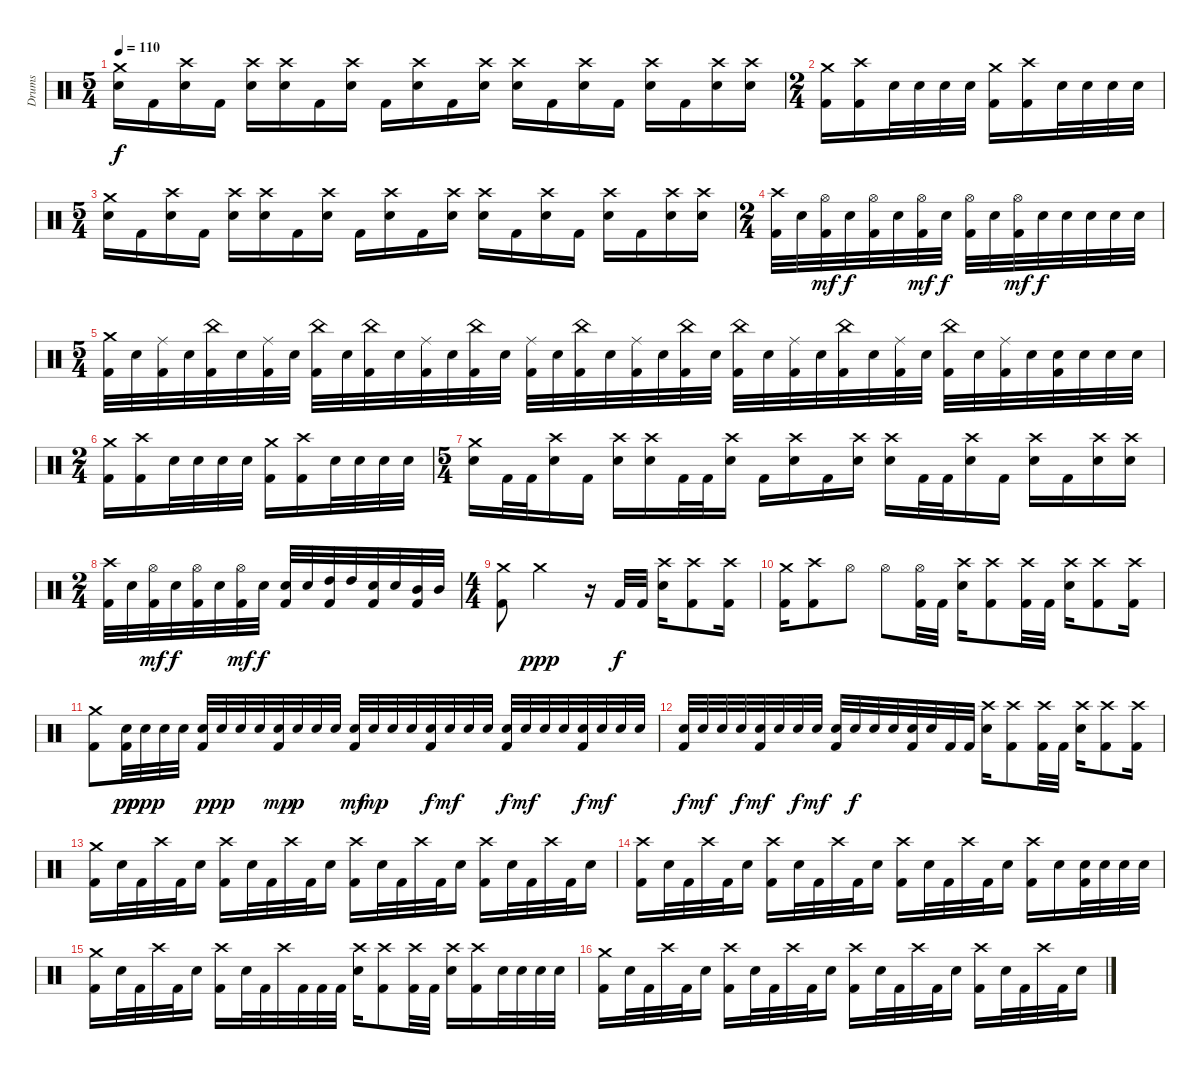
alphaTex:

\track ("Drums" "Drums") {instrument percussion}
\staff {score}
\articulation defaults
\ts (5 4)
\tempo 110
\clef neutral
\ks c
("Crash medium (hit)" "Electric Snare (hit)").16{dy f} "Kick (hit) 2".16 ("Crash high (hit)" "Electric Snare (hit)").16 "Kick (hit) 2".16 ("Crash high (hit)" "Electric Snare (hit)").16 ("Crash high (hit)" "Electric Snare (hit)").16 "Kick (hit) 2".16 ("Crash high (hit)" "Electric Snare (hit)").16 "Kick (hit) 2".16 ("Crash high (hit)" "Electric Snare (hit)").16 "Kick (hit) 2".16 ("Crash high (hit)" "Electric Snare (hit)").16 ("Crash high (hit)" "Electric Snare (hit)").16 "Kick (hit) 2".16 ("Crash high (hit)" "Electric Snare (hit)").16 "Kick (hit) 2".16 ("Crash high (hit)" "Electric Snare (hit)").16 "Kick (hit) 2".16 ("Crash high (hit)" "Electric Snare (hit)").16 ("Crash high (hit)" "Electric Snare (hit)").16 |
\ts (2 4)
("Crash medium (hit)" "Kick (hit) 2").16 ("Crash high (hit)" "Kick (hit) 2").16 "Electric Snare (hit)".32 "Electric Snare (hit)".32 "Electric Snare (hit)".32 "Electric Snare (hit)".32 ("Crash medium (hit)" "Kick (hit) 2").16 ("Crash high (hit)" "Kick (hit) 2").16 "Electric Snare (hit)".32 "Electric Snare (hit)".32 "Electric Snare (hit)".32 "Electric Snare (hit)".32 |
\ts (5 4)
("Crash medium (hit)" "Electric Snare (hit)").16 "Kick (hit) 2".16 ("Crash high (hit)" "Electric Snare (hit)").16 "Kick (hit) 2".16 ("Crash high (hit)" "Electric Snare (hit)").16 ("Crash high (hit)" "Electric Snare (hit)").16 "Kick (hit) 2".16 ("Crash high (hit)" "Electric Snare (hit)").16 "Kick (hit) 2".16 ("Crash high (hit)" "Electric Snare (hit)").16 "Kick (hit) 2".16 ("Crash high (hit)" "Electric Snare (hit)").16 ("Crash high (hit)" "Electric Snare (hit)").16 "Kick (hit) 2".16 ("Crash high (hit)" "Electric Snare (hit)").16 "Kick (hit) 2".16 ("Crash high (hit)" "Electric Snare (hit)").16 "Kick (hit) 2".16 ("Crash high (hit)" "Electric Snare (hit)").16 ("Crash high (hit)" "Electric Snare (hit)").16 |
\ts (2 4)
("Crash high (hit)" "Kick (hit) 2").32 "Electric Snare (hit)".32 ("Hi-Hat (open)" "Kick (hit) 2").32{dy mf} "Electric Snare (hit)".32{dy f} ("Hi-Hat (open)" "Kick (hit) 2").32 "Electric Snare (hit)".32 ("Hi-Hat (open)" "Kick (hit) 2").32{dy mf} "Electric Snare (hit)".32{dy f} ("Hi-Hat (open)" "Kick (hit) 2").32 "Electric Snare (hit)".32 ("Hi-Hat (open)" "Kick (hit) 2").32{dy mf} "Electric Snare (hit)".32{dy f} "Electric Snare (hit)".32 "Electric Snare (hit)".32 "Electric Snare (hit)".32 "Electric Snare (hit)".32 |
\ts (5 4)
("Crash medium (hit)" "Kick (hit) 2").32 "Electric Snare (hit)".32 ("Ride (middle)" "Kick (hit) 2").32 "Electric Snare (hit)".32 ("China (hit)" "Kick (hit) 2").32 "Electric Snare (hit)".32 ("Ride (middle)" "Kick (hit) 2").32 "Electric Snare (hit)".32 ("China (hit)" "Kick (hit) 2").32 "Electric Snare (hit)".32 ("China (hit)" "Kick (hit) 2").32 "Electric Snare (hit)".32 ("Ride (middle)" "Kick (hit) 2").32 "Electric Snare (hit)".32 ("China (hit)" "Kick (hit) 2").32 "Electric Snare (hit)".32 ("Ride (middle)" "Kick (hit) 2").32 "Electric Snare (hit)".32 ("China (hit)" "Kick (hit) 2").32 "Electric Snare (hit)".32 ("Ride (middle)" "Kick (hit) 2").32 "Electric Snare (hit)".32 ("China (hit)" "Kick (hit) 2").32 "Electric Snare (hit)".32 ("China (hit)" "Kick (hit) 2").32 "Electric Snare (hit)".32 ("Ride (middle)" "Kick (hit) 2").32 "Electric Snare (hit)".32 ("China (hit)" "Kick (hit) 2").32 "Electric Snare (hit)".32 ("Ride (middle)" "Kick (hit) 2").32 "Electric Snare (hit)".32 ("China (hit)" "Kick (hit) 2").32 "Electric Snare (hit)".32 ("Ride (middle)" "Kick (hit) 2").32 "Electric Snare (hit)".32 ("Electric Snare (hit)" "Kick (hit) 2").32 "Electric Snare (hit)".32 "Electric Snare (hit)".32 "Electric Snare (hit)".32 |
\ts (2 4)
("Crash medium (hit)" "Kick (hit) 2").16 ("Crash high (hit)" "Kick (hit) 2").16 "Electric Snare (hit)".32 "Electric Snare (hit)".32 "Electric Snare (hit)".32 "Electric Snare (hit)".32 ("Crash medium (hit)" "Kick (hit) 2").16 ("Crash high (hit)" "Kick (hit) 2").16 "Electric Snare (hit)".32 "Electric Snare (hit)".32 "Electric Snare (hit)".32 "Electric Snare (hit)".32 |
\ts (5 4)
("Crash medium (hit)" "Electric Snare (hit)").16 "Kick (hit) 2".32 "Kick (hit) 2".32 ("Crash high (hit)" "Electric Snare (hit)").16 "Kick (hit) 2".16 ("Crash high (hit)" "Electric Snare (hit)").16 ("Crash high (hit)" "Electric Snare (hit)").16 "Kick (hit) 2".32 "Kick (hit) 2".32 ("Crash high (hit)" "Electric Snare (hit)").16 "Kick (hit) 2".16 ("Crash high (hit)" "Electric Snare (hit)").16 "Kick (hit) 2".16 ("Crash high (hit)" "Electric Snare (hit)").16 ("Crash high (hit)" "Electric Snare (hit)").16 "Kick (hit) 2".32 "Kick (hit) 2".32 ("Crash high (hit)" "Electric Snare (hit)").16 "Kick (hit) 2".16 ("Crash high (hit)" "Electric Snare (hit)").16 "Kick (hit) 2".16 ("Crash high (hit)" "Electric Snare (hit)").16 ("Crash high (hit)" "Electric Snare (hit)").16 |
\ts (2 4)
("Crash high (hit)" "Kick (hit) 2").32 "Electric Snare (hit)".32 ("Hi-Hat (open)" "Kick (hit) 2").32{dy mf} "Electric Snare (hit)".32{dy f} ("Hi-Hat (open)" "Kick (hit) 2").32 "Electric Snare (hit)".32 ("Hi-Hat (open)" "Kick (hit) 2").32{dy mf} "Electric Snare (hit)".32{dy f} ("Electric Snare (hit)" "Kick (hit) 2").32 "Electric Snare (hit)".32 ("High Tom (hit)" "Kick (hit) 2").32 "High Tom (hit)".32 ("Electric Snare (hit)" "Kick (hit) 2").32 "Electric Snare (hit)".32 ("Mid Tom (hit)" "Kick (hit) 2").32 "Mid Tom (hit)".32 |
\ts (4 4)
("Crash medium (hit)" "Kick (hit) 2").8 "Crash medium (hit)".2{dy ppp} r.16 "Kick (hit) 2".32{dy f} "Kick (hit) 2".32 ("Crash high (hit)" "Electric Snare (hit)").16 ("Crash high (hit)" "Kick (hit) 2").8 ("Crash high (hit)" "Kick (hit) 2").16 |
("Crash medium (hit)" "Kick (hit) 2").16 ("Crash high (hit)" "Kick (hit) 2").8 "Hi-Hat (open)".8 "Hi-Hat (open)".8 ("Hi-Hat (open)" "Kick (hit) 2").32 "Kick (hit) 2".32 ("Crash high (hit)" "Electric Snare (hit)").16 ("Crash high (hit)" "Kick (hit) 2").8 ("Crash high (hit)" "Kick (hit) 2").32 "Kick (hit) 2".32 ("Crash high (hit)" "Electric Snare (hit)").16 ("Crash high (hit)" "Kick (hit) 2").8 ("Crash high (hit)" "Kick (hit) 2").16 |
("Crash medium (hit)" "Kick (hit) 2").8 ("Electric Snare (hit)" "Kick (hit) 2").32{dy pp} "Electric Snare (hit)".32{dy ppp} "Electric Snare (hit)".32 "Electric Snare (hit)".32 ("Electric Snare (hit)" "Kick (hit) 2").32{dy p} "Electric Snare (hit)".32{dy pp} "Electric Snare (hit)".32 "Electric Snare (hit)".32 ("Electric Snare (hit)" "Kick (hit) 2").32{dy mp} "Electric Snare (hit)".32{dy p} "Electric Snare (hit)".32 "Electric Snare (hit)".32 ("Electric Snare (hit)" "Kick (hit) 2").32{dy mf} "Electric Snare (hit)".32{dy mp} "Electric Snare (hit)".32 "Electric Snare (hit)".32 ("Electric Snare (hit)" "Kick (hit) 2").32{dy f} "Electric Snare (hit)".32{dy mf} "Electric Snare (hit)".32 "Electric Snare (hit)".32 ("Electric Snare (hit)" "Kick (hit) 2").32{dy f} "Electric Snare (hit)".32{dy mf} "Electric Snare (hit)".32 "Electric Snare (hit)".32 ("Electric Snare (hit)" "Kick (hit) 2").32{dy f} "Electric Snare (hit)".32{dy mf} "Electric Snare (hit)".32 "Electric Snare (hit)".32 |
("Electric Snare (hit)" "Kick (hit) 2").32{dy f} "Electric Snare (hit)".32{dy mf} "Electric Snare (hit)".32 "Electric Snare (hit)".32{dy f} ("Electric Snare (hit)" "Kick (hit) 2").32{dy mf} "Electric Snare (hit)".32 "Electric Snare (hit)".32{dy f} "Electric Snare (hit)".32{dy mf} ("Electric Snare (hit)" "Kick (hit) 2").32 "Electric Snare (hit)".32{dy f} "Electric Snare (hit)".32 "Electric Snare (hit)".32 ("Electric Snare (hit)" "Kick (hit) 2").32 "Electric Snare (hit)".32 "Kick (hit) 2".32 "Kick (hit) 2".32 ("Crash high (hit)" "Electric Snare (hit)").16 ("Crash high (hit)" "Kick (hit) 2").8 ("Crash high (hit)" "Kick (hit) 2").32 "Kick (hit) 2".32 ("Crash high (hit)" "Electric Snare (hit)").16 ("Crash high (hit)" "Kick (hit) 2").8 ("Crash high (hit)" "Kick (hit) 2").16 |
("Crash medium (hit)" "Kick (hit) 2").16 "Electric Snare (hit)".32 "Kick (hit) 2".32 "Crash high (hit)".32 "Kick (hit) 2".32 "Electric Snare (hit)".16 ("Crash high (hit)" "Kick (hit) 2").16 "Electric Snare (hit)".32 "Kick (hit) 2".32 "Crash high (hit)".32 "Kick (hit) 2".32 "Electric Snare (hit)".16 ("Crash high (hit)" "Kick (hit) 2").16 "Electric Snare (hit)".32 "Kick (hit) 2".32 "Crash high (hit)".32 "Kick (hit) 2".32 "Electric Snare (hit)".16 ("Crash high (hit)" "Kick (hit) 2").16 "Electric Snare (hit)".32 "Kick (hit) 2".32 "Crash high (hit)".32 "Kick (hit) 2".32 "Electric Snare (hit)".16 |
("Crash high (hit)" "Kick (hit) 2").16 "Electric Snare (hit)".32 "Kick (hit) 2".32 "Crash high (hit)".32 "Kick (hit) 2".32 "Electric Snare (hit)".16 ("Crash high (hit)" "Kick (hit) 2").16 "Electric Snare (hit)".32 "Kick (hit) 2".32 "Crash high (hit)".32 "Kick (hit) 2".32 "Electric Snare (hit)".16 ("Crash high (hit)" "Kick (hit) 2").16 "Electric Snare (hit)".32 "Kick (hit) 2".32 "Crash high (hit)".32 "Kick (hit) 2".32 "Electric Snare (hit)".16 ("Crash high (hit)" "Kick (hit) 2").16 "Electric Snare (hit)".16 ("Electric Snare (hit)" "Kick (hit) 2").32 "Electric Snare (hit)".32 "Electric Snare (hit)".32 "Electric Snare (hit)".32 |
("Crash medium (hit)" "Kick (hit) 2").16 "Electric Snare (hit)".32 "Kick (hit) 2".32 "Crash high (hit)".32 "Kick (hit) 2".32 "Electric Snare (hit)".16 ("Crash high (hit)" "Kick (hit) 2").16 "Electric Snare (hit)".32 "Kick (hit) 2".32 "Crash high (hit)".32 "Kick (hit) 2".32 "Kick (hit) 2".32 "Kick (hit) 2".32 ("Crash high (hit)" "Electric Snare (hit)").16 ("Crash high (hit)" "Kick (hit) 2").8 ("Crash high (hit)" "Kick (hit) 2").32 "Kick (hit) 2".32 ("Crash high (hit)" "Electric Snare (hit)").16 ("Crash high (hit)" "Kick (hit) 2").16 "Electric Snare (hit)".32 "Electric Snare (hit)".32 "Electric Snare (hit)".32 "Electric Snare (hit)".32 |
("Crash medium (hit)" "Kick (hit) 2").16 "Electric Snare (hit)".32 "Kick (hit) 2".32 "Crash high (hit)".32 "Kick (hit) 2".32 "Electric Snare (hit)".16 ("Crash high (hit)" "Kick (hit) 2").16 "Electric Snare (hit)".32 "Kick (hit) 2".32 "Crash high (hit)".32 "Kick (hit) 2".32 "Electric Snare (hit)".16 ("Crash high (hit)" "Kick (hit) 2").16 "Electric Snare (hit)".32 "Kick (hit) 2".32 "Crash high (hit)".32 "Kick (hit) 2".32 "Electric Snare (hit)".16 ("Crash high (hit)" "Kick (hit) 2").16 "Electric Snare (hit)".32 "Kick (hit) 2".32 "Crash high (hit)".32 "Kick (hit) 2".32 "Electric Snare (hit)".16
